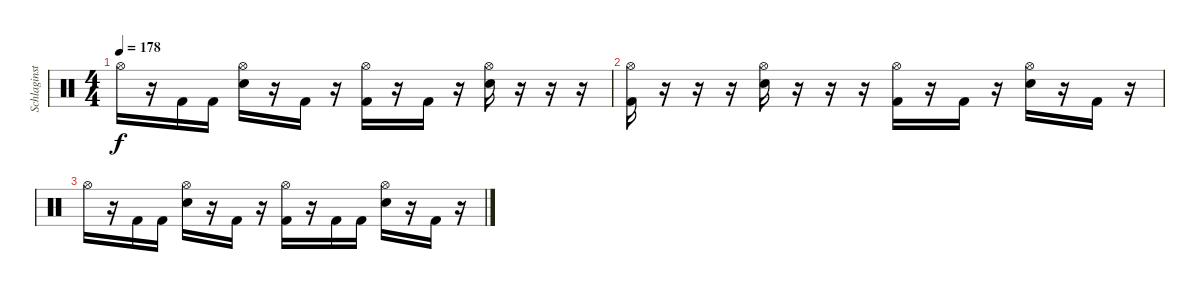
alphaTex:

\track ("Schlaginstrumente - Auswahl" "Schlaginst") {instrument percussion}
\staff {score}
\articulation defaults
\ts (4 4)
\tempo 178
\clef neutral
\ks c "Hi-Hat (open)".16{dy f}
r.16 "Kick (hit) 2".16 "Kick (hit) 2".16 ("Hi-Hat (open)" "Snare (hit) 2").16 r.16 "Kick (hit) 2".16 r.16 ("Hi-Hat (open)" "Kick (hit) 2").16 r.16 "Kick (hit) 2".16 r.16 ("Hi-Hat (open)" "Snare (hit) 2").16 r.16 r.16 r.16 |
("Hi-Hat (open)" "Kick (hit) 2").16 r.16 r.16 r.16 ("Hi-Hat (open)" "Snare (hit) 2").16 r.16 r.16 r.16 ("Hi-Hat (open)" "Kick (hit) 2").16 r.16 "Kick (hit) 2".16 r.16 ("Hi-Hat (open)" "Snare (hit) 2").16 r.16 "Kick (hit) 2".16 r.16 |
"Hi-Hat (open)".16 r.16 "Kick (hit) 2".16 "Kick (hit) 2".16 ("Hi-Hat (open)" "Snare (hit) 2").16 r.16 "Kick (hit) 2".16 r.16 ("Hi-Hat (open)" "Kick (hit) 2").16 r.16 "Kick (hit) 2".16 "Kick (hit) 2".16 ("Hi-Hat (open)" "Snare (hit) 2").16 r.16 "Kick (hit) 2".16 r.16
